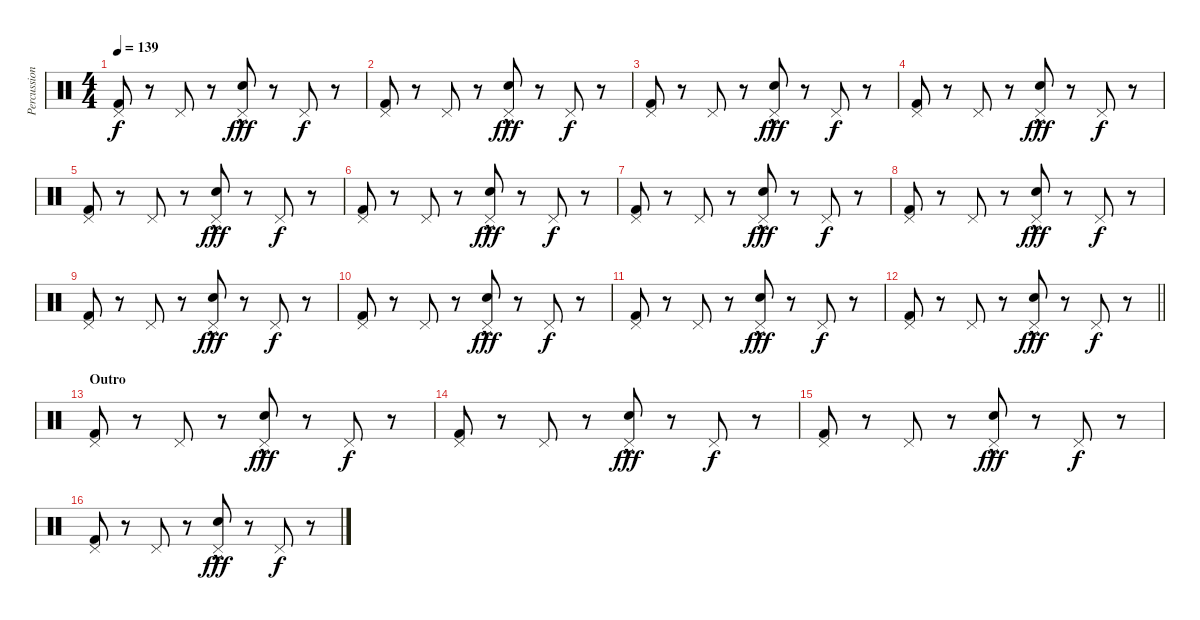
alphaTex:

\track ("Percussion" "Percussion") {instrument percussion}
\staff {score}
\articulation defaults
\ts (4 4)
\tempo 139
\clef neutral
\ks c
("Kick (hit) 2" "Pedal Hi-Hat (hit)").8{dy f} r.8 "Pedal Hi-Hat (hit)".8 r.8 ("Electric Snare (hit)"{hac} "Pedal Hi-Hat (hit)").8{dy fff} r.8 "Pedal Hi-Hat (hit)".8{dy f} r.8 |
("Kick (hit) 2" "Pedal Hi-Hat (hit)").8 r.8 "Pedal Hi-Hat (hit)".8 r.8 ("Electric Snare (hit)"{hac} "Pedal Hi-Hat (hit)").8{dy fff} r.8 "Pedal Hi-Hat (hit)".8{dy f} r.8 |
("Kick (hit) 2" "Pedal Hi-Hat (hit)").8 r.8 "Pedal Hi-Hat (hit)".8 r.8 ("Electric Snare (hit)"{hac} "Pedal Hi-Hat (hit)").8{dy fff} r.8 "Pedal Hi-Hat (hit)".8{dy f} r.8 |
("Kick (hit) 2" "Pedal Hi-Hat (hit)").8 r.8 "Pedal Hi-Hat (hit)".8 r.8 ("Electric Snare (hit)"{hac} "Pedal Hi-Hat (hit)").8{dy fff} r.8 "Pedal Hi-Hat (hit)".8{dy f} r.8 |
("Kick (hit) 2" "Pedal Hi-Hat (hit)").8 r.8 "Pedal Hi-Hat (hit)".8 r.8 ("Electric Snare (hit)"{hac} "Pedal Hi-Hat (hit)").8{dy fff} r.8 "Pedal Hi-Hat (hit)".8{dy f} r.8 |
("Kick (hit) 2" "Pedal Hi-Hat (hit)").8 r.8 "Pedal Hi-Hat (hit)".8 r.8 ("Electric Snare (hit)"{hac} "Pedal Hi-Hat (hit)").8{dy fff} r.8 "Pedal Hi-Hat (hit)".8{dy f} r.8 |
("Kick (hit) 2" "Pedal Hi-Hat (hit)").8 r.8 "Pedal Hi-Hat (hit)".8 r.8 ("Electric Snare (hit)"{hac} "Pedal Hi-Hat (hit)").8{dy fff} r.8 "Pedal Hi-Hat (hit)".8{dy f} r.8 |
("Kick (hit) 2" "Pedal Hi-Hat (hit)").8 r.8 "Pedal Hi-Hat (hit)".8 r.8 ("Electric Snare (hit)"{hac} "Pedal Hi-Hat (hit)").8{dy fff} r.8 "Pedal Hi-Hat (hit)".8{dy f} r.8 |
("Kick (hit) 2" "Pedal Hi-Hat (hit)").8 r.8 "Pedal Hi-Hat (hit)".8 r.8 ("Electric Snare (hit)"{hac} "Pedal Hi-Hat (hit)").8{dy fff} r.8 "Pedal Hi-Hat (hit)".8{dy f} r.8 |
("Kick (hit) 2" "Pedal Hi-Hat (hit)").8 r.8 "Pedal Hi-Hat (hit)".8 r.8 ("Electric Snare (hit)"{hac} "Pedal Hi-Hat (hit)").8{dy fff} r.8 "Pedal Hi-Hat (hit)".8{dy f} r.8 |
("Kick (hit) 2" "Pedal Hi-Hat (hit)").8 r.8 "Pedal Hi-Hat (hit)".8 r.8 ("Electric Snare (hit)"{hac} "Pedal Hi-Hat (hit)").8{dy fff} r.8 "Pedal Hi-Hat (hit)".8{dy f} r.8 |
\barLineRight lightlight
("Kick (hit) 2" "Pedal Hi-Hat (hit)").8 r.8 "Pedal Hi-Hat (hit)".8 r.8 ("Electric Snare (hit)"{hac} "Pedal Hi-Hat (hit)").8{dy fff} r.8 "Pedal Hi-Hat (hit)".8{dy f} r.8 |
\section ("" "Outro")
("Kick (hit) 2" "Pedal Hi-Hat (hit)").8 r.8 "Pedal Hi-Hat (hit)".8 r.8 ("Electric Snare (hit)"{hac} "Pedal Hi-Hat (hit)").8{dy fff} r.8 "Pedal Hi-Hat (hit)".8{dy f} r.8 |
("Kick (hit) 2" "Pedal Hi-Hat (hit)").8 r.8 "Pedal Hi-Hat (hit)".8 r.8 ("Electric Snare (hit)"{hac} "Pedal Hi-Hat (hit)").8{dy fff} r.8 "Pedal Hi-Hat (hit)".8{dy f} r.8 |
("Kick (hit) 2" "Pedal Hi-Hat (hit)").8 r.8 "Pedal Hi-Hat (hit)".8 r.8 ("Electric Snare (hit)"{hac} "Pedal Hi-Hat (hit)").8{dy fff} r.8 "Pedal Hi-Hat (hit)".8{dy f} r.8 |
("Kick (hit) 2" "Pedal Hi-Hat (hit)").8 r.8 "Pedal Hi-Hat (hit)".8 r.8 ("Electric Snare (hit)"{hac} "Pedal Hi-Hat (hit)").8{dy fff} r.8 "Pedal Hi-Hat (hit)".8{dy f} r.8
